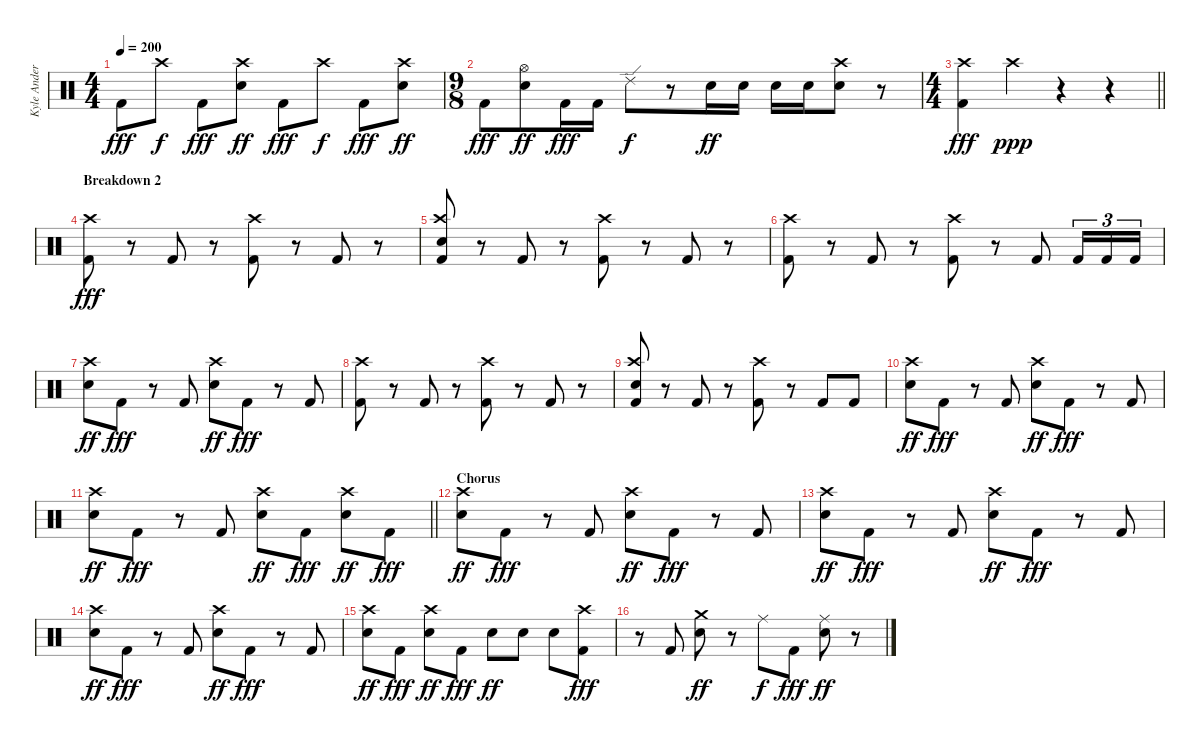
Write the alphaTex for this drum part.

\track ("Kyle Anderson" "Kyle Ander") {instrument percussion}
\staff {score}
\articulation defaults
\ts (4 4)
\tempo 200
\clef neutral
\ks c "Kick (hit) 2".8{dy fff} "Crash high (hit)".8{dy f} "Kick (hit) 2".8{dy fff}
("Crash high (hit)" "Electric Snare (hit)").8{dy ff} "Kick (hit) 2".8{dy fff} "Crash high (hit)".8{dy f} "Kick (hit) 2".8{dy fff} ("Crash high (hit)" "Electric Snare (hit)").8{dy ff} |
\ts (9 8)
"Kick (hit) 2".8{dy fff} ("Hi-Hat (open)" "Electric Snare (hit)").8{dy ff} "Kick (hit) 2".16{dy fff} "Kick (hit) 2".16 "Ride (edge) 2".8{dy f} r.8 "Electric Snare (hit)".16{dy ff} "Electric Snare (hit)".16 "Electric Snare (hit)".16 "Electric Snare (hit)".16 ("Crash high (hit)" "Electric Snare (hit)").8 r.8 |
\ts (4 4)
\barLineRight lightlight
("Crash high (hit)" "Kick (hit) 2").4{dy fff} "Crash high (hit)".4{dy ppp} r.4 r.4 |
\section ("" "Breakdown 2")
("Crash high (hit)" "Kick (hit) 2").8{dy fff} r.8 "Kick (hit) 2".8 r.8 ("Crash high (hit)" "Kick (hit) 2").8 r.8 "Kick (hit) 2".8 r.8 |
("Crash high (hit)" "Electric Snare (hit)" "Kick (hit) 2").8 r.8 "Kick (hit) 2".8 r.8 ("Crash high (hit)" "Kick (hit) 2").8 r.8 "Kick (hit) 2".8 r.8 |
("Crash high (hit)" "Kick (hit) 2").8 r.8 "Kick (hit) 2".8 r.8 ("Crash high (hit)" "Kick (hit) 2").8 r.8 "Kick (hit) 2".8 "Kick (hit) 2".16{tu (3 2)} "Kick (hit) 2".16{tu (3 2)} "Kick (hit) 2".16{tu (3 2)} |
("Crash high (hit)" "Electric Snare (hit)").8{dy ff} "Kick (hit) 2".8{dy fff} r.8 "Kick (hit) 2".8 ("Crash high (hit)" "Electric Snare (hit)").8{dy ff} "Kick (hit) 2".8{dy fff} r.8 "Kick (hit) 2".8 |
("Crash high (hit)" "Kick (hit) 2").8 r.8 "Kick (hit) 2".8 r.8 ("Crash high (hit)" "Kick (hit) 2").8 r.8 "Kick (hit) 2".8 r.8 |
("Crash high (hit)" "Electric Snare (hit)" "Kick (hit) 2").8 r.8 "Kick (hit) 2".8 r.8 ("Crash high (hit)" "Kick (hit) 2").8 r.8 "Kick (hit) 2".8 "Kick (hit) 2".8 |
("Crash high (hit)" "Electric Snare (hit)").8{dy ff} "Kick (hit) 2".8{dy fff} r.8 "Kick (hit) 2".8 ("Crash high (hit)" "Electric Snare (hit)").8{dy ff} "Kick (hit) 2".8{dy fff} r.8 "Kick (hit) 2".8 |
\barLineRight lightlight
("Crash high (hit)" "Electric Snare (hit)").8{dy ff} "Kick (hit) 2".8{dy fff} r.8 "Kick (hit) 2".8 ("Crash high (hit)" "Electric Snare (hit)").8{dy ff} "Kick (hit) 2".8{dy fff} ("Crash high (hit)" "Electric Snare (hit)").8{dy ff} "Kick (hit) 2".8{dy fff} |
\section ("" "Chorus")
("Crash high (hit)" "Electric Snare (hit)").8{dy ff} "Kick (hit) 2".8{dy fff} r.8 "Kick (hit) 2".8 ("Crash high (hit)" "Electric Snare (hit)").8{dy ff} "Kick (hit) 2".8{dy fff} r.8 "Kick (hit) 2".8 |
("Crash high (hit)" "Electric Snare (hit)").8{dy ff} "Kick (hit) 2".8{dy fff} r.8 "Kick (hit) 2".8 ("Crash high (hit)" "Electric Snare (hit)").8{dy ff} "Kick (hit) 2".8{dy fff} r.8 "Kick (hit) 2".8 |
("Crash high (hit)" "Electric Snare (hit)").8{dy ff} "Kick (hit) 2".8{dy fff} r.8 "Kick (hit) 2".8 ("Crash high (hit)" "Electric Snare (hit)").8{dy ff} "Kick (hit) 2".8{dy fff} r.8 "Kick (hit) 2".8 |
("Crash high (hit)" "Electric Snare (hit)").8{dy ff} "Kick (hit) 2".8{dy fff} ("Crash high (hit)" "Electric Snare (hit)").8{dy ff} "Kick (hit) 2".8{dy fff} "Electric Snare (hit)".8{dy ff} "Electric Snare (hit)".8 "Electric Snare (hit)".8 ("Crash high (hit)" "Kick (hit) 2").8{dy fff} |
r.8 "Kick (hit) 2".8 ("Crash medium (hit)" "Electric Snare (hit)").8{dy ff} r.8 "Ride (middle)".8{dy f} "Kick (hit) 2".8{dy fff} ("Ride (middle)" "Electric Snare (hit)").8{dy ff} r.8
